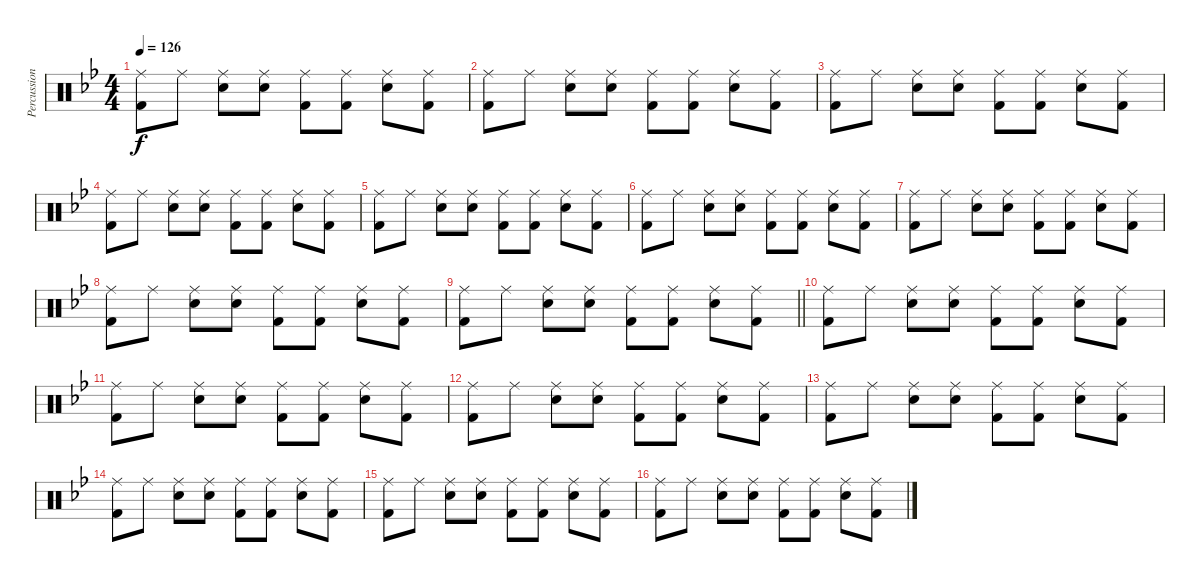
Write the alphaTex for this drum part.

\track ("Percussion" "Percussion") {instrument percussion}
\staff {score}
\articulation defaults
\ts (4 4)
\tempo 126
\clef neutral
\ks bb
("Ride (middle)" "Kick (hit) 2").8{dy f} "Ride (middle)".8 ("Ride (middle)" "Snare (hit) 2").8 ("Ride (middle)" "Snare (hit) 2").8 ("Ride (middle)" "Kick (hit) 2").8 ("Ride (middle)" "Kick (hit) 2").8 ("Ride (middle)" "Snare (hit) 2").8 ("Ride (middle)" "Kick (hit) 2").8 |
("Ride (middle)" "Kick (hit) 2").8 "Ride (middle)".8 ("Ride (middle)" "Snare (hit) 2").8 ("Ride (middle)" "Snare (hit) 2").8 ("Ride (middle)" "Kick (hit) 2").8 ("Ride (middle)" "Kick (hit) 2").8 ("Ride (middle)" "Snare (hit) 2").8 ("Ride (middle)" "Kick (hit) 2").8 |
("Ride (middle)" "Kick (hit) 2").8 "Ride (middle)".8 ("Ride (middle)" "Snare (hit) 2").8 ("Ride (middle)" "Snare (hit) 2").8 ("Ride (middle)" "Kick (hit) 2").8 ("Ride (middle)" "Kick (hit) 2").8 ("Ride (middle)" "Snare (hit) 2").8 ("Ride (middle)" "Kick (hit) 2").8 |
("Ride (middle)" "Kick (hit) 2").8 "Ride (middle)".8 ("Ride (middle)" "Snare (hit) 2").8 ("Ride (middle)" "Snare (hit) 2").8 ("Ride (middle)" "Kick (hit) 2").8 ("Ride (middle)" "Kick (hit) 2").8 ("Ride (middle)" "Snare (hit) 2").8 ("Ride (middle)" "Kick (hit) 2").8 |
("Ride (middle)" "Kick (hit) 2").8 "Ride (middle)".8 ("Ride (middle)" "Snare (hit) 2").8 ("Ride (middle)" "Snare (hit) 2").8 ("Ride (middle)" "Kick (hit) 2").8 ("Ride (middle)" "Kick (hit) 2").8 ("Ride (middle)" "Snare (hit) 2").8 ("Ride (middle)" "Kick (hit) 2").8 |
("Ride (middle)" "Kick (hit) 2").8 "Ride (middle)".8 ("Ride (middle)" "Snare (hit) 2").8 ("Ride (middle)" "Snare (hit) 2").8 ("Ride (middle)" "Kick (hit) 2").8 ("Ride (middle)" "Kick (hit) 2").8 ("Ride (middle)" "Snare (hit) 2").8 ("Ride (middle)" "Kick (hit) 2").8 |
("Ride (middle)" "Kick (hit) 2").8 "Ride (middle)".8 ("Ride (middle)" "Snare (hit) 2").8 ("Ride (middle)" "Snare (hit) 2").8 ("Ride (middle)" "Kick (hit) 2").8 ("Ride (middle)" "Kick (hit) 2").8 ("Ride (middle)" "Snare (hit) 2").8 ("Ride (middle)" "Kick (hit) 2").8 |
("Ride (middle)" "Kick (hit) 2").8 "Ride (middle)".8 ("Ride (middle)" "Snare (hit) 2").8 ("Ride (middle)" "Snare (hit) 2").8 ("Ride (middle)" "Kick (hit) 2").8 ("Ride (middle)" "Kick (hit) 2").8 ("Ride (middle)" "Snare (hit) 2").8 ("Ride (middle)" "Kick (hit) 2").8 |
\barLineRight lightlight
("Ride (middle)" "Kick (hit) 2").8 "Ride (middle)".8 ("Ride (middle)" "Snare (hit) 2").8 ("Ride (middle)" "Snare (hit) 2").8 ("Ride (middle)" "Kick (hit) 2").8 ("Ride (middle)" "Kick (hit) 2").8 ("Ride (middle)" "Snare (hit) 2").8 ("Ride (middle)" "Kick (hit) 2").8 |
("Ride (middle)" "Kick (hit) 2").8 "Ride (middle)".8 ("Ride (middle)" "Snare (hit) 2").8 ("Ride (middle)" "Snare (hit) 2").8 ("Ride (middle)" "Kick (hit) 2").8 ("Ride (middle)" "Kick (hit) 2").8 ("Ride (middle)" "Snare (hit) 2").8 ("Ride (middle)" "Kick (hit) 2").8 |
("Ride (middle)" "Kick (hit) 2").8 "Ride (middle)".8 ("Ride (middle)" "Snare (hit) 2").8 ("Ride (middle)" "Snare (hit) 2").8 ("Ride (middle)" "Kick (hit) 2").8 ("Ride (middle)" "Kick (hit) 2").8 ("Ride (middle)" "Snare (hit) 2").8 ("Ride (middle)" "Kick (hit) 2").8 |
("Ride (middle)" "Kick (hit) 2").8 "Ride (middle)".8 ("Ride (middle)" "Snare (hit) 2").8 ("Ride (middle)" "Snare (hit) 2").8 ("Ride (middle)" "Kick (hit) 2").8 ("Ride (middle)" "Kick (hit) 2").8 ("Ride (middle)" "Snare (hit) 2").8 ("Ride (middle)" "Kick (hit) 2").8 |
("Ride (middle)" "Kick (hit) 2").8 "Ride (middle)".8 ("Ride (middle)" "Snare (hit) 2").8 ("Ride (middle)" "Snare (hit) 2").8 ("Ride (middle)" "Kick (hit) 2").8 ("Ride (middle)" "Kick (hit) 2").8 ("Ride (middle)" "Snare (hit) 2").8 ("Ride (middle)" "Kick (hit) 2").8 |
("Ride (middle)" "Kick (hit) 2").8 "Ride (middle)".8 ("Ride (middle)" "Snare (hit) 2").8 ("Ride (middle)" "Snare (hit) 2").8 ("Ride (middle)" "Kick (hit) 2").8 ("Ride (middle)" "Kick (hit) 2").8 ("Ride (middle)" "Snare (hit) 2").8 ("Ride (middle)" "Kick (hit) 2").8 |
("Ride (middle)" "Kick (hit) 2").8 "Ride (middle)".8 ("Ride (middle)" "Snare (hit) 2").8 ("Ride (middle)" "Snare (hit) 2").8 ("Ride (middle)" "Kick (hit) 2").8 ("Ride (middle)" "Kick (hit) 2").8 ("Ride (middle)" "Snare (hit) 2").8 ("Ride (middle)" "Kick (hit) 2").8 |
("Ride (middle)" "Kick (hit) 2").8 "Ride (middle)".8 ("Ride (middle)" "Snare (hit) 2").8 ("Ride (middle)" "Snare (hit) 2").8 ("Ride (middle)" "Kick (hit) 2").8 ("Ride (middle)" "Kick (hit) 2").8 ("Ride (middle)" "Snare (hit) 2").8 ("Ride (middle)" "Kick (hit) 2").8
